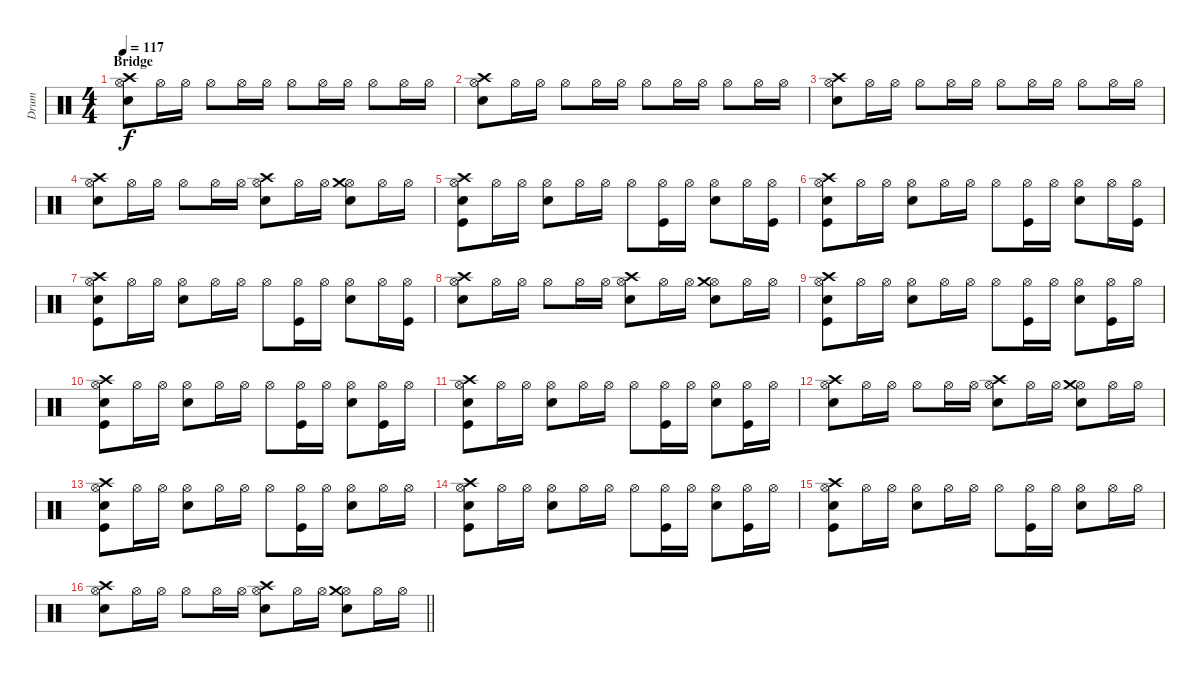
\track ("Drum" "Drum") {instrument percussion}
\staff {score}
\articulation defaults
\ts (4 4)
\section ("" "Bridge")
\tempo 117
\clef neutral
\ks c
("Hi-Hat (open)" "Snare (hit) 2" "Crash high (hit)").8{dy f} "Hi-Hat (open)".16 "Hi-Hat (open)".16 "Hi-Hat (open)".8 "Hi-Hat (open)".16 "Hi-Hat (open)".16 "Hi-Hat (open)".8 "Hi-Hat (open)".16 "Hi-Hat (open)".16 "Hi-Hat (open)".8 "Hi-Hat (open)".16 "Hi-Hat (open)".16 |
("Hi-Hat (open)" "Snare (hit) 2" "Crash high (hit)").8 "Hi-Hat (open)".16 "Hi-Hat (open)".16 "Hi-Hat (open)".8 "Hi-Hat (open)".16 "Hi-Hat (open)".16 "Hi-Hat (open)".8 "Hi-Hat (open)".16 "Hi-Hat (open)".16 "Hi-Hat (open)".8 "Hi-Hat (open)".16 "Hi-Hat (open)".16 |
("Hi-Hat (open)" "Snare (hit) 2" "Crash high (hit)").8 "Hi-Hat (open)".16 "Hi-Hat (open)".16 "Hi-Hat (open)".8 "Hi-Hat (open)".16 "Hi-Hat (open)".16 "Hi-Hat (open)".8 "Hi-Hat (open)".16 "Hi-Hat (open)".16 "Hi-Hat (open)".8 "Hi-Hat (open)".16 "Hi-Hat (open)".16 |
("Hi-Hat (open)" "Snare (hit) 2" "Crash high (hit)").8 "Hi-Hat (open)".16 "Hi-Hat (open)".16 "Hi-Hat (open)".8 "Hi-Hat (open)".16 "Hi-Hat (open)".16 ("Hi-Hat (open)" "Snare (hit) 2" "Crash high (hit)").8 "Hi-Hat (open)".16 "Hi-Hat (open)".16 ("Hi-Hat (open)" "Snare (hit) 2" "Crash medium (hit)").8 "Hi-Hat (open)".16 "Hi-Hat (open)".16 |
("Hi-Hat (open)" "Kick (hit)" "Snare (hit) 2" "Crash high (hit)").8 "Hi-Hat (open)".16 "Hi-Hat (open)".16 ("Hi-Hat (open)" "Snare (hit) 2").8 "Hi-Hat (open)".16 "Hi-Hat (open)".16 "Hi-Hat (open)".8 ("Hi-Hat (open)" "Kick (hit)").16 "Hi-Hat (open)".16 ("Hi-Hat (open)" "Snare (hit) 2").8 "Hi-Hat (open)".16 ("Hi-Hat (open)" "Kick (hit)").16 |
("Hi-Hat (open)" "Kick (hit)" "Snare (hit) 2" "Crash high (hit)").8 "Hi-Hat (open)".16 "Hi-Hat (open)".16 ("Hi-Hat (open)" "Snare (hit) 2").8 "Hi-Hat (open)".16 "Hi-Hat (open)".16 "Hi-Hat (open)".8 ("Hi-Hat (open)" "Kick (hit)").16 "Hi-Hat (open)".16 ("Hi-Hat (open)" "Snare (hit) 2").8 "Hi-Hat (open)".16 ("Hi-Hat (open)" "Kick (hit)").16 |
("Hi-Hat (open)" "Kick (hit)" "Snare (hit) 2" "Crash high (hit)").8 "Hi-Hat (open)".16 "Hi-Hat (open)".16 ("Hi-Hat (open)" "Snare (hit) 2").8 "Hi-Hat (open)".16 "Hi-Hat (open)".16 "Hi-Hat (open)".8 ("Hi-Hat (open)" "Kick (hit)").16 "Hi-Hat (open)".16 ("Hi-Hat (open)" "Snare (hit) 2").8 "Hi-Hat (open)".16 ("Hi-Hat (open)" "Kick (hit)").16 |
("Hi-Hat (open)" "Snare (hit) 2" "Crash high (hit)").8 "Hi-Hat (open)".16 "Hi-Hat (open)".16 "Hi-Hat (open)".8 "Hi-Hat (open)".16 "Hi-Hat (open)".16 ("Hi-Hat (open)" "Snare (hit) 2" "Crash high (hit)").8 "Hi-Hat (open)".16 "Hi-Hat (open)".16 ("Hi-Hat (open)" "Snare (hit) 2" "Crash medium (hit)").8 "Hi-Hat (open)".16 "Hi-Hat (open)".16 |
("Hi-Hat (open)" "Kick (hit)" "Snare (hit) 2" "Crash high (hit)").8 "Hi-Hat (open)".16 "Hi-Hat (open)".16 ("Hi-Hat (open)" "Snare (hit) 2").8 "Hi-Hat (open)".16 "Hi-Hat (open)".16 "Hi-Hat (open)".8 ("Hi-Hat (open)" "Kick (hit)").16 "Hi-Hat (open)".16 ("Hi-Hat (open)" "Snare (hit) 2").8 ("Hi-Hat (open)" "Kick (hit)").16 "Hi-Hat (open)".16 |
("Hi-Hat (open)" "Kick (hit)" "Snare (hit) 2" "Crash high (hit)").8 "Hi-Hat (open)".16 "Hi-Hat (open)".16 ("Hi-Hat (open)" "Snare (hit) 2").8 "Hi-Hat (open)".16 "Hi-Hat (open)".16 "Hi-Hat (open)".8 ("Hi-Hat (open)" "Kick (hit)").16 "Hi-Hat (open)".16 ("Hi-Hat (open)" "Snare (hit) 2").8 ("Hi-Hat (open)" "Kick (hit)").16 "Hi-Hat (open)".16 |
("Hi-Hat (open)" "Kick (hit)" "Snare (hit) 2" "Crash high (hit)").8 "Hi-Hat (open)".16 "Hi-Hat (open)".16 ("Hi-Hat (open)" "Snare (hit) 2").8 "Hi-Hat (open)".16 "Hi-Hat (open)".16 "Hi-Hat (open)".8 ("Hi-Hat (open)" "Kick (hit)").16 "Hi-Hat (open)".16 ("Hi-Hat (open)" "Snare (hit) 2").8 ("Hi-Hat (open)" "Kick (hit)").16 "Hi-Hat (open)".16 |
("Hi-Hat (open)" "Snare (hit) 2" "Crash high (hit)").8 "Hi-Hat (open)".16 "Hi-Hat (open)".16 "Hi-Hat (open)".8 "Hi-Hat (open)".16 "Hi-Hat (open)".16 ("Hi-Hat (open)" "Snare (hit) 2" "Crash high (hit)").8 "Hi-Hat (open)".16 "Hi-Hat (open)".16 ("Hi-Hat (open)" "Snare (hit) 2" "Crash medium (hit)").8 "Hi-Hat (open)".16 "Hi-Hat (open)".16 |
("Hi-Hat (open)" "Kick (hit)" "Snare (hit) 2" "Crash high (hit)").8 "Hi-Hat (open)".16 "Hi-Hat (open)".16 ("Hi-Hat (open)" "Snare (hit) 2").8 "Hi-Hat (open)".16 "Hi-Hat (open)".16 "Hi-Hat (open)".8 ("Hi-Hat (open)" "Kick (hit)").16 "Hi-Hat (open)".16 ("Hi-Hat (open)" "Snare (hit) 2").8 "Hi-Hat (open)".16 "Hi-Hat (open)".16 |
("Hi-Hat (open)" "Kick (hit)" "Snare (hit) 2" "Crash high (hit)").8 "Hi-Hat (open)".16 "Hi-Hat (open)".16 ("Hi-Hat (open)" "Snare (hit) 2").8 "Hi-Hat (open)".16 "Hi-Hat (open)".16 "Hi-Hat (open)".8 ("Hi-Hat (open)" "Kick (hit)").16 "Hi-Hat (open)".16 ("Hi-Hat (open)" "Snare (hit) 2").8 ("Hi-Hat (open)" "Kick (hit)").16 "Hi-Hat (open)".16 |
("Hi-Hat (open)" "Kick (hit)" "Snare (hit) 2" "Crash high (hit)").8 "Hi-Hat (open)".16 "Hi-Hat (open)".16 ("Hi-Hat (open)" "Snare (hit) 2").8 "Hi-Hat (open)".16 "Hi-Hat (open)".16 "Hi-Hat (open)".8 ("Hi-Hat (open)" "Kick (hit)").16 "Hi-Hat (open)".16 ("Hi-Hat (open)" "Snare (hit) 2").8 "Hi-Hat (open)".16 "Hi-Hat (open)".16 |
\barLineRight lightlight
("Hi-Hat (open)" "Snare (hit) 2" "Crash high (hit)").8 "Hi-Hat (open)".16 "Hi-Hat (open)".16 "Hi-Hat (open)".8 "Hi-Hat (open)".16 "Hi-Hat (open)".16 ("Hi-Hat (open)" "Snare (hit) 2" "Crash high (hit)").8 "Hi-Hat (open)".16 "Hi-Hat (open)".16 ("Hi-Hat (open)" "Snare (hit) 2" "Crash medium (hit)").8 "Hi-Hat (open)".16 "Hi-Hat (open)".16
